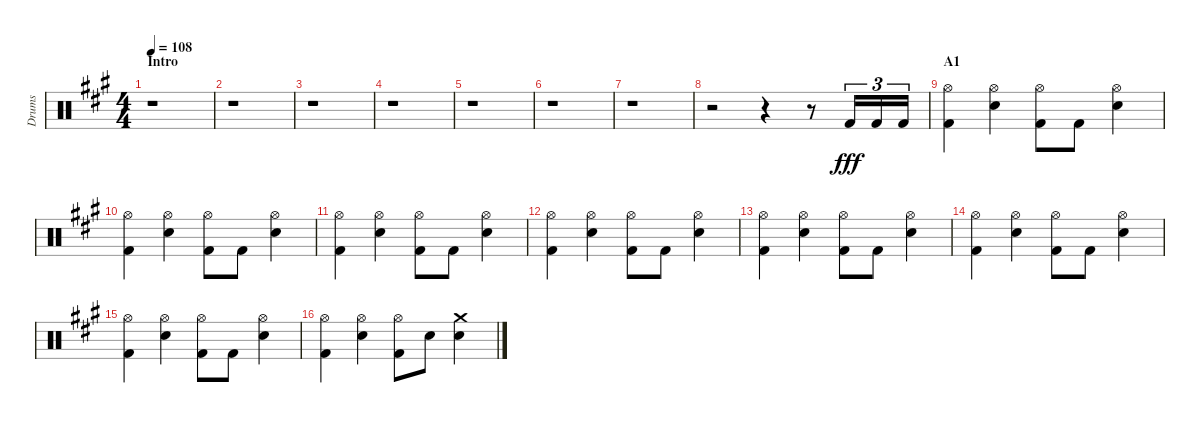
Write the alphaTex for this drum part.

\track ("Drums" "Drums") {instrument percussion}
\staff {score}
\articulation defaults
\ts (4 4)
\section ("" "Intro")
\tempo 108
\clef neutral
\ks a
r.1{dy fff} |
r.1 |
r.1 |
r.1 |
r.1 |
r.1 |
r.1 |
r.2 r.4 r.8 "Kick (hit) 2".16{tu (3 2)} "Kick (hit) 2".16{tu (3 2)} "Kick (hit) 2".16{tu (3 2)} |
\section ("" "A1")
("Hi-Hat (open)" "Kick (hit) 2").4 ("Hi-Hat (open)" "Electric Snare (hit)").4 ("Hi-Hat (open)" "Kick (hit) 2").8 "Kick (hit) 2".8 ("Hi-Hat (open)" "Electric Snare (hit)").4 |
("Hi-Hat (open)" "Kick (hit) 2").4 ("Hi-Hat (open)" "Electric Snare (hit)").4 ("Hi-Hat (open)" "Kick (hit) 2").8 "Kick (hit) 2".8 ("Hi-Hat (open)" "Electric Snare (hit)").4 |
("Hi-Hat (open)" "Kick (hit) 2").4 ("Hi-Hat (open)" "Electric Snare (hit)").4 ("Hi-Hat (open)" "Kick (hit) 2").8 "Kick (hit) 2".8 ("Hi-Hat (open)" "Electric Snare (hit)").4 |
("Hi-Hat (open)" "Kick (hit) 2").4 ("Hi-Hat (open)" "Electric Snare (hit)").4 ("Hi-Hat (open)" "Kick (hit) 2").8 "Kick (hit) 2".8 ("Hi-Hat (open)" "Electric Snare (hit)").4 |
("Hi-Hat (open)" "Kick (hit) 2").4 ("Hi-Hat (open)" "Electric Snare (hit)").4 ("Hi-Hat (open)" "Kick (hit) 2").8 "Kick (hit) 2".8 ("Hi-Hat (open)" "Electric Snare (hit)").4 |
("Hi-Hat (open)" "Kick (hit) 2").4 ("Hi-Hat (open)" "Electric Snare (hit)").4 ("Hi-Hat (open)" "Kick (hit) 2").8 "Kick (hit) 2".8 ("Hi-Hat (open)" "Electric Snare (hit)").4 |
("Hi-Hat (open)" "Kick (hit) 2").4 ("Hi-Hat (open)" "Electric Snare (hit)").4 ("Hi-Hat (open)" "Kick (hit) 2").8 "Kick (hit) 2".8 ("Hi-Hat (open)" "Electric Snare (hit)").4 |
("Hi-Hat (open)" "Kick (hit) 2").4 ("Hi-Hat (open)" "Electric Snare (hit)").4 ("Hi-Hat (open)" "Kick (hit) 2").8 "Electric Snare (hit)".8 ("Crash medium (hit)" "Electric Snare (hit)").4
